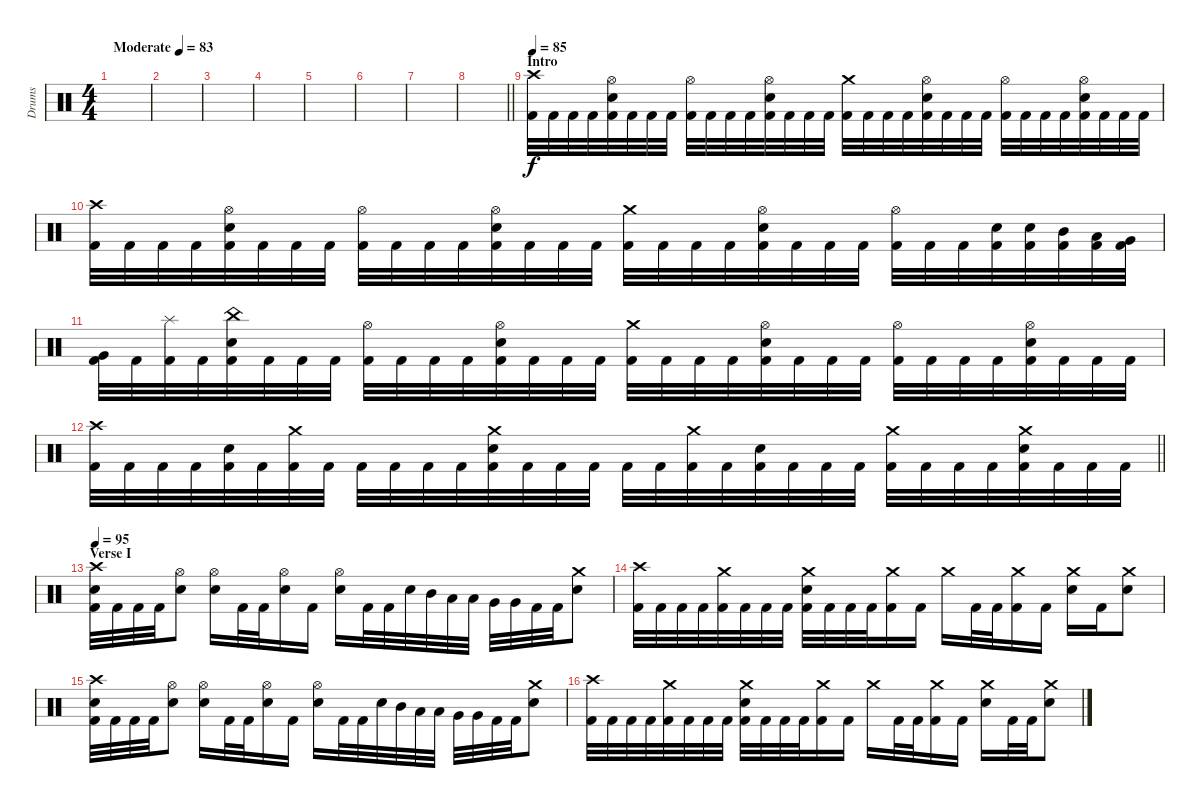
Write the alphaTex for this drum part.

\track ("Drums" "Drums") {instrument percussion}
\staff {score}
\articulation defaults
\ts (4 4)
\tempo (83 "Moderate")
\clef neutral
\ks c
|
|
|
|
|
|
|
\barLineRight lightlight
|
\section ("" "Intro")
\tempo 85
("Crash high (hit)" "Kick (hit) 2").32 "Kick (hit) 2".32 "Kick (hit) 2".32 "Kick (hit) 2".32 ("Hi-Hat (open)" "Electric Snare (hit)" "Kick (hit) 2").32 "Kick (hit) 2".32 "Kick (hit) 2".32 "Kick (hit) 2".32 ("Hi-Hat (open)" "Kick (hit) 2").32 "Kick (hit) 2".32 "Kick (hit) 2".32 "Kick (hit) 2".32 ("Hi-Hat (open)" "Electric Snare (hit)" "Kick (hit) 2").32 "Kick (hit) 2".32 "Kick (hit) 2".32 "Kick (hit) 2".32 ("Crash medium (hit)" "Kick (hit) 2").32 "Kick (hit) 2".32 "Kick (hit) 2".32 "Kick (hit) 2".32 ("Hi-Hat (open)" "Electric Snare (hit)" "Kick (hit) 2").32 "Kick (hit) 2".32 "Kick (hit) 2".32 "Kick (hit) 2".32 ("Hi-Hat (open)" "Kick (hit) 2").32 "Kick (hit) 2".32 "Kick (hit) 2".32 "Kick (hit) 2".32 ("Hi-Hat (open)" "Electric Snare (hit)" "Kick (hit) 2").32 "Kick (hit) 2".32 "Kick (hit) 2".32 "Kick (hit) 2".32 |
("Crash high (hit)" "Kick (hit) 2").32 "Kick (hit) 2".32 "Kick (hit) 2".32 "Kick (hit) 2".32 ("Hi-Hat (open)" "Electric Snare (hit)" "Kick (hit) 2").32 "Kick (hit) 2".32 "Kick (hit) 2".32 "Kick (hit) 2".32 ("Hi-Hat (open)" "Kick (hit) 2").32 "Kick (hit) 2".32 "Kick (hit) 2".32 "Kick (hit) 2".32 ("Hi-Hat (open)" "Electric Snare (hit)" "Kick (hit) 2").32 "Kick (hit) 2".32 "Kick (hit) 2".32 "Kick (hit) 2".32 ("Crash medium (hit)" "Kick (hit) 2").32 "Kick (hit) 2".32 "Kick (hit) 2".32 "Kick (hit) 2".32 ("Hi-Hat (open)" "Electric Snare (hit)" "Kick (hit) 2").32 "Kick (hit) 2".32 "Kick (hit) 2".32 "Kick (hit) 2".32 ("Hi-Hat (open)" "Kick (hit) 2").32 "Kick (hit) 2".32 "Kick (hit) 2".32 ("Electric Snare (hit)" "Kick (hit) 2").32 ("Electric Snare (hit)" "Kick (hit) 2").32 ("Mid Tom (hit)" "Kick (hit) 2").32 ("Low Tom (hit)" "Kick (hit) 2").32 ("Very Low Tom (hit)" "Kick (hit) 2").32 |
("Very Low Tom (hit)" "Kick (hit) 2").32 "Kick (hit) 2".32 ("Splash (hit)" "Kick (hit) 2").32 "Kick (hit) 2".32 ("China (hit)" "Electric Snare (hit)" "Kick (hit) 2").32 "Kick (hit) 2".32 "Kick (hit) 2".32 "Kick (hit) 2".32 ("Hi-Hat (open)" "Kick (hit) 2").32 "Kick (hit) 2".32 "Kick (hit) 2".32 "Kick (hit) 2".32 ("Hi-Hat (open)" "Electric Snare (hit)" "Kick (hit) 2").32 "Kick (hit) 2".32 "Kick (hit) 2".32 "Kick (hit) 2".32 ("Crash medium (hit)" "Kick (hit) 2").32 "Kick (hit) 2".32 "Kick (hit) 2".32 "Kick (hit) 2".32 ("Hi-Hat (open)" "Electric Snare (hit)" "Kick (hit) 2").32 "Kick (hit) 2".32 "Kick (hit) 2".32 "Kick (hit) 2".32 ("Hi-Hat (open)" "Kick (hit) 2").32 "Kick (hit) 2".32 "Kick (hit) 2".32 "Kick (hit) 2".32 ("Hi-Hat (open)" "Electric Snare (hit)" "Kick (hit) 2").32 "Kick (hit) 2".32 "Kick (hit) 2".32 "Kick (hit) 2".32 |
\barLineRight lightlight
("Crash high (hit)" "Kick (hit) 2").32 "Kick (hit) 2".32 "Kick (hit) 2".32 "Kick (hit) 2".32 ("Electric Snare (hit)" "Kick (hit) 2").32 "Kick (hit) 2".32 ("Crash medium (hit)" "Kick (hit) 2").32 "Kick (hit) 2".32 "Kick (hit) 2".32 "Kick (hit) 2".32 "Kick (hit) 2".32 "Kick (hit) 2".32 ("Crash medium (hit)" "Electric Snare (hit)" "Kick (hit) 2").32 "Kick (hit) 2".32 "Kick (hit) 2".32 "Kick (hit) 2".32 "Kick (hit) 2".32 "Kick (hit) 2".32 ("Crash medium (hit)" "Kick (hit) 2").32 "Kick (hit) 2".32 ("Electric Snare (hit)" "Kick (hit) 2").32 "Kick (hit) 2".32 "Kick (hit) 2".32 "Kick (hit) 2".32 ("Crash medium (hit)" "Kick (hit) 2").32 "Kick (hit) 2".32 "Kick (hit) 2".32 "Kick (hit) 2".32 ("Crash medium (hit)" "Electric Snare (hit)" "Kick (hit) 2").32 "Kick (hit) 2".32 "Kick (hit) 2".32 "Kick (hit) 2".32 |
\section ("" "Verse I")
\tempo 95
("Crash high (hit)" "Electric Snare (hit)" "Kick (hit) 2").32 "Kick (hit) 2".32 "Kick (hit) 2".32 "Kick (hit) 2".32 ("Hi-Hat (open)" "Electric Snare (hit)").8 ("Hi-Hat (open)" "Electric Snare (hit)").16 "Kick (hit) 2".32 "Kick (hit) 2".32 ("Hi-Hat (open)" "Electric Snare (hit)").16 "Kick (hit) 2".16 ("Hi-Hat (open)" "Electric Snare (hit)").16 "Kick (hit) 2".32 "Kick (hit) 2".32 "Electric Snare (hit)".32 "Mid Tom (hit)".32 "Low Tom (hit)".32 "Low Tom (hit)".32 "Very Low Tom (hit)".32 "Very Low Tom (hit)".32 "Kick (hit) 2".32 "Kick (hit) 2".32 ("Crash medium (hit)" "Electric Snare (hit)").8 |
("Crash high (hit)" "Kick (hit) 2").32 "Kick (hit) 2".32 "Kick (hit) 2".32 "Kick (hit) 2".32 ("Crash medium (hit)" "Kick (hit) 2").32 "Kick (hit) 2".32 "Kick (hit) 2".32 "Kick (hit) 2".32 ("Crash medium (hit)" "Electric Snare (hit)" "Kick (hit) 2").32 "Kick (hit) 2".32 "Kick (hit) 2".32 "Kick (hit) 2".32 ("Crash medium (hit)" "Kick (hit) 2").16 "Kick (hit) 2".16 "Crash medium (hit)".16 "Kick (hit) 2".32 "Kick (hit) 2".32 ("Crash medium (hit)" "Kick (hit) 2").16 "Kick (hit) 2".16 ("Crash medium (hit)" "Electric Snare (hit)").16 "Kick (hit) 2".16 ("Crash medium (hit)" "Electric Snare (hit)").8 |
("Crash high (hit)" "Electric Snare (hit)" "Kick (hit) 2").32 "Kick (hit) 2".32 "Kick (hit) 2".32 "Kick (hit) 2".32 ("Hi-Hat (open)" "Electric Snare (hit)").8 ("Hi-Hat (open)" "Electric Snare (hit)").16 "Kick (hit) 2".32 "Kick (hit) 2".32 ("Hi-Hat (open)" "Electric Snare (hit)").16 "Kick (hit) 2".16 ("Hi-Hat (open)" "Electric Snare (hit)").16 "Kick (hit) 2".32 "Kick (hit) 2".32 "Electric Snare (hit)".32 "Mid Tom (hit)".32 "Low Tom (hit)".32 "Low Tom (hit)".32 "Very Low Tom (hit)".32 "Very Low Tom (hit)".32 "Kick (hit) 2".32 "Kick (hit) 2".32 ("Crash medium (hit)" "Electric Snare (hit)").8 |
("Crash high (hit)" "Kick (hit) 2").32 "Kick (hit) 2".32 "Kick (hit) 2".32 "Kick (hit) 2".32 ("Crash medium (hit)" "Kick (hit) 2").32 "Kick (hit) 2".32 "Kick (hit) 2".32 "Kick (hit) 2".32 ("Crash medium (hit)" "Electric Snare (hit)" "Kick (hit) 2").32 "Kick (hit) 2".32 "Kick (hit) 2".32 "Kick (hit) 2".32 ("Crash medium (hit)" "Kick (hit) 2").16 "Kick (hit) 2".16 "Crash medium (hit)".16 "Kick (hit) 2".32 "Kick (hit) 2".32 ("Crash medium (hit)" "Kick (hit) 2").16 "Kick (hit) 2".16 ("Crash medium (hit)" "Electric Snare (hit)").16 "Kick (hit) 2".32 "Kick (hit) 2".32 ("Crash medium (hit)" "Electric Snare (hit)").8
